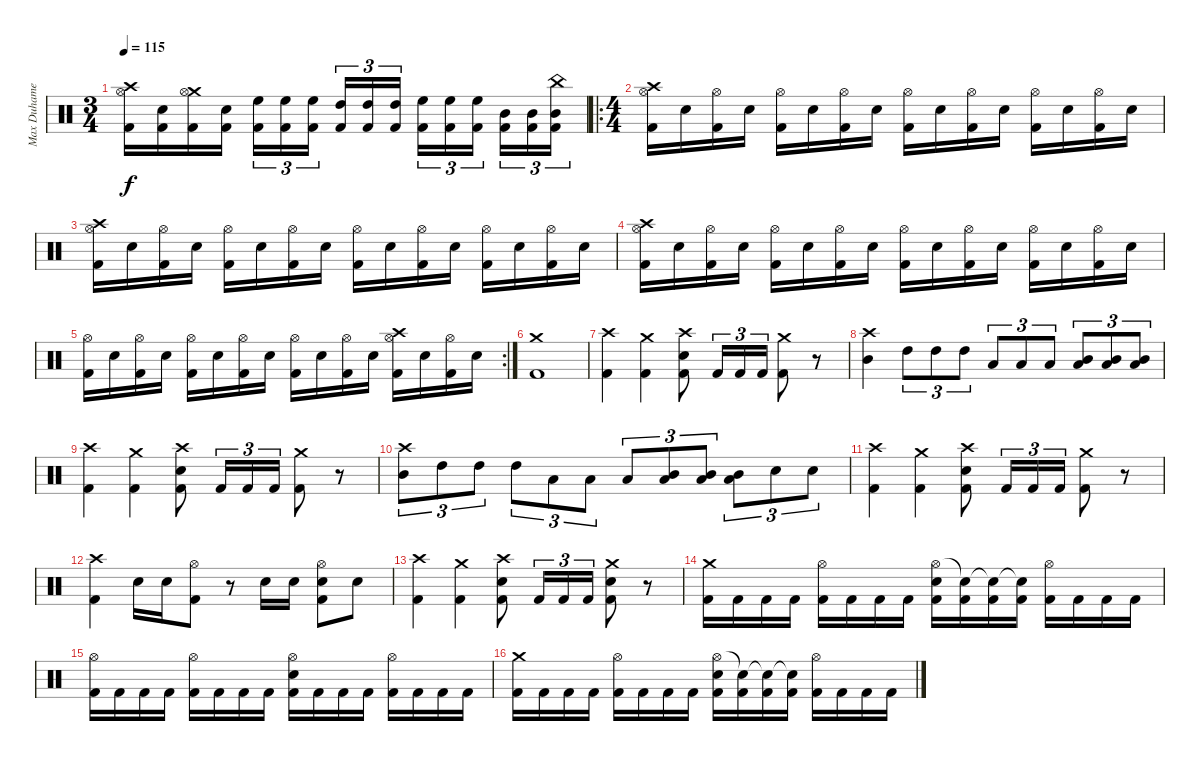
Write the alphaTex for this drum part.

\track ("Max Duhamel (Drums)" "Max Duhame") {instrument percussion}
\staff {score}
\articulation defaults
\ts (3 4)
\tempo 115
\clef neutral
\ks c
("Crash high (hit)" "Hi-Hat (open)" "Kick (hit) 2").16{dy f} ("Electric Snare (hit)" "Kick (hit) 2").16 ("Crash medium (hit)" "Hi-Hat (open)" "Kick (hit) 2").16 ("Electric Snare (hit)" "Kick (hit) 2").16 ("High Floor Tom (hit)" "Kick (hit) 2").16{tu (3 2)} ("High Floor Tom (hit)" "Kick (hit) 2").16{tu (3 2)} ("High Floor Tom (hit)" "Kick (hit) 2").16{tu (3 2) beam splitsecondary} ("High Tom (hit)" "Kick (hit) 2").16{tu (3 2)} ("High Tom (hit)" "Kick (hit) 2").16{tu (3 2)} ("High Tom (hit)" "Kick (hit) 2").16{tu (3 2)} ("High Floor Tom (hit)" "Kick (hit) 2").16{tu (3 2)} ("High Floor Tom (hit)" "Kick (hit) 2").16{tu (3 2)} ("High Floor Tom (hit)" "Kick (hit) 2").16{tu (3 2) beam splitsecondary} ("Mid Tom (hit)" "Kick (hit) 2").16{tu (3 2)} ("Mid Tom (hit)" "Kick (hit) 2").16{tu (3 2)} ("China (hit)" "Mid Tom (hit)" "Kick (hit) 2").16{tu (3 2)} |
\ro
\ts (4 4)
("Crash high (hit)" "Hi-Hat (open)" "Kick (hit) 2").16 "Electric Snare (hit)".16 ("Hi-Hat (open)" "Kick (hit) 2").16 "Electric Snare (hit)".16 ("Hi-Hat (open)" "Kick (hit) 2").16 "Electric Snare (hit)".16 ("Hi-Hat (open)" "Kick (hit) 2").16 "Electric Snare (hit)".16 ("Hi-Hat (open)" "Kick (hit) 2").16 "Electric Snare (hit)".16 ("Hi-Hat (open)" "Kick (hit) 2").16 "Electric Snare (hit)".16 ("Hi-Hat (open)" "Kick (hit) 2").16 "Electric Snare (hit)".16 ("Hi-Hat (open)" "Kick (hit) 2").16 "Electric Snare (hit)".16 |
("Crash high (hit)" "Hi-Hat (open)" "Kick (hit) 2").16 "Electric Snare (hit)".16 ("Hi-Hat (open)" "Kick (hit) 2").16 "Electric Snare (hit)".16 ("Hi-Hat (open)" "Kick (hit) 2").16 "Electric Snare (hit)".16 ("Hi-Hat (open)" "Kick (hit) 2").16 "Electric Snare (hit)".16 ("Hi-Hat (open)" "Kick (hit) 2").16 "Electric Snare (hit)".16 ("Hi-Hat (open)" "Kick (hit) 2").16 "Electric Snare (hit)".16 ("Hi-Hat (open)" "Kick (hit) 2").16 "Electric Snare (hit)".16 ("Hi-Hat (open)" "Kick (hit) 2").16 "Electric Snare (hit)".16 |
("Crash high (hit)" "Hi-Hat (open)" "Kick (hit) 2").16 "Electric Snare (hit)".16 ("Hi-Hat (open)" "Kick (hit) 2").16 "Electric Snare (hit)".16 ("Hi-Hat (open)" "Kick (hit) 2").16 "Electric Snare (hit)".16 ("Hi-Hat (open)" "Kick (hit) 2").16 "Electric Snare (hit)".16 ("Hi-Hat (open)" "Kick (hit) 2").16 "Electric Snare (hit)".16 ("Hi-Hat (open)" "Kick (hit) 2").16 "Electric Snare (hit)".16 ("Hi-Hat (open)" "Kick (hit) 2").16 "Electric Snare (hit)".16 ("Hi-Hat (open)" "Kick (hit) 2").16 "Electric Snare (hit)".16 |
\rc 2
("Hi-Hat (open)" "Kick (hit) 2").16 "Electric Snare (hit)".16 ("Hi-Hat (open)" "Kick (hit) 2").16 "Electric Snare (hit)".16 ("Hi-Hat (open)" "Kick (hit) 2").16 "Electric Snare (hit)".16 ("Hi-Hat (open)" "Kick (hit) 2").16 "Electric Snare (hit)".16 ("Hi-Hat (open)" "Kick (hit) 2").16 "Electric Snare (hit)".16 ("Hi-Hat (open)" "Kick (hit) 2").16 "Electric Snare (hit)".16 ("Crash high (hit)" "Hi-Hat (open)" "Kick (hit) 2").16 "Electric Snare (hit)".16 ("Hi-Hat (open)" "Kick (hit) 2").16 "Electric Snare (hit)".16 |
("Crash medium (hit)" "Kick (hit) 2").1 |
("Crash high (hit)" "Kick (hit) 2").4 ("Crash medium (hit)" "Kick (hit) 2").4 ("Crash high (hit)" "Electric Snare (hit)" "Kick (hit) 2").8 "Kick (hit) 2".16{tu (3 2)} "Kick (hit) 2".16{tu (3 2)} "Kick (hit) 2".16{tu (3 2)} ("Crash medium (hit)" "Kick (hit) 2").8 r.8 |
("Crash high (hit)" "Mid Tom (hit)").4 "High Tom (hit)".8{tu (3 2)} "High Tom (hit)".8{tu (3 2)} "High Tom (hit)".8{tu (3 2)} "Low Tom (hit)".8{tu (3 2)} "Low Tom (hit)".8{tu (3 2)} "Low Tom (hit)".8{tu (3 2)} ("Low Floor Tom (hit)" "Mid Tom (hit)").8{tu (3 2)} ("Low Floor Tom (hit)" "Mid Tom (hit)").8{tu (3 2)} ("Low Floor Tom (hit)" "Mid Tom (hit)").8{tu (3 2)} |
("Crash high (hit)" "Kick (hit) 2").4 ("Crash medium (hit)" "Kick (hit) 2").4 ("Crash high (hit)" "Electric Snare (hit)" "Kick (hit) 2").8 "Kick (hit) 2".16{tu (3 2)} "Kick (hit) 2".16{tu (3 2)} "Kick (hit) 2".16{tu (3 2)} ("Crash medium (hit)" "Kick (hit) 2").8 r.8 |
("Crash high (hit)" "Mid Tom (hit)").8{tu (3 2)} "High Tom (hit)".8{tu (3 2)} "High Tom (hit)".8{tu (3 2)} "High Tom (hit)".8{tu (3 2)} "Low Tom (hit)".8{tu (3 2)} "Low Tom (hit)".8{tu (3 2)} "Low Tom (hit)".8{tu (3 2)} ("Low Floor Tom (hit)" "Mid Tom (hit)").8{tu (3 2)} ("Low Floor Tom (hit)" "Mid Tom (hit)").8{tu (3 2)} ("Low Floor Tom (hit)" "Mid Tom (hit)").8{tu (3 2)} "Electric Snare (hit)".8{tu (3 2)} "Electric Snare (hit)".8{tu (3 2)} |
("Crash high (hit)" "Kick (hit) 2").4 ("Crash medium (hit)" "Kick (hit) 2").4 ("Crash high (hit)" "Electric Snare (hit)" "Kick (hit) 2").8 "Kick (hit) 2".16{tu (3 2)} "Kick (hit) 2".16{tu (3 2)} "Kick (hit) 2".16{tu (3 2)} ("Crash medium (hit)" "Kick (hit) 2").8 r.8 |
("Crash high (hit)" "Kick (hit) 2").4 "Electric Snare (hit)".16 "Electric Snare (hit)".16 ("Hi-Hat (open)" "Kick (hit) 2").8 r.8 "Electric Snare (hit)".16 "Electric Snare (hit)".16 ("Hi-Hat (open)" "Electric Snare (hit)" "Kick (hit) 2").8 "Electric Snare (hit)".8 |
("Crash high (hit)" "Kick (hit) 2").4 ("Crash medium (hit)" "Kick (hit) 2").4 ("Crash high (hit)" "Electric Snare (hit)" "Kick (hit) 2").8 "Kick (hit) 2".16{tu (3 2)} "Kick (hit) 2".16{tu (3 2)} "Kick (hit) 2".16{tu (3 2)} ("Crash medium (hit)" "Electric Snare (hit)" "Kick (hit) 2").8 r.8 |
("Crash medium (hit)" "Kick (hit) 2").16 "Kick (hit) 2".16 "Kick (hit) 2".16 "Kick (hit) 2".16 ("Hi-Hat (open)" "Kick (hit) 2").16 "Kick (hit) 2".16 "Kick (hit) 2".16 "Kick (hit) 2".16 ("Hi-Hat (open)" "Electric Snare (hit)" "Kick (hit) 2").16 ("Snare (hit)"{t} "Kick (hit) 2").16 ("Snare (hit)"{t} "Kick (hit) 2").16 ("Snare (hit)"{t} "Kick (hit) 2").16 ("Hi-Hat (open)" "Kick (hit) 2").16 "Kick (hit) 2".16 "Kick (hit) 2".16 "Kick (hit) 2".16 |
("Hi-Hat (open)" "Kick (hit) 2").16 "Kick (hit) 2".16 "Kick (hit) 2".16 "Kick (hit) 2".16 ("Hi-Hat (open)" "Kick (hit) 2").16 "Kick (hit) 2".16 "Kick (hit) 2".16 "Kick (hit) 2".16 ("Hi-Hat (open)" "Electric Snare (hit)" "Kick (hit) 2").16 "Kick (hit) 2".16 "Kick (hit) 2".16 "Kick (hit) 2".16 ("Hi-Hat (open)" "Kick (hit) 2").16 "Kick (hit) 2".16 "Kick (hit) 2".16 "Kick (hit) 2".16 |
("Crash medium (hit)" "Kick (hit) 2").16 "Kick (hit) 2".16 "Kick (hit) 2".16 "Kick (hit) 2".16 ("Hi-Hat (open)" "Kick (hit) 2").16 "Kick (hit) 2".16 "Kick (hit) 2".16 "Kick (hit) 2".16 ("Hi-Hat (open)" "Electric Snare (hit)" "Kick (hit) 2").16 ("Snare (hit)"{t} "Kick (hit) 2").16 ("Snare (hit)"{t} "Kick (hit) 2").16 ("Snare (hit)"{t} "Kick (hit) 2").16 ("Hi-Hat (open)" "Kick (hit) 2").16 "Kick (hit) 2".16 "Kick (hit) 2".16 "Kick (hit) 2".16
